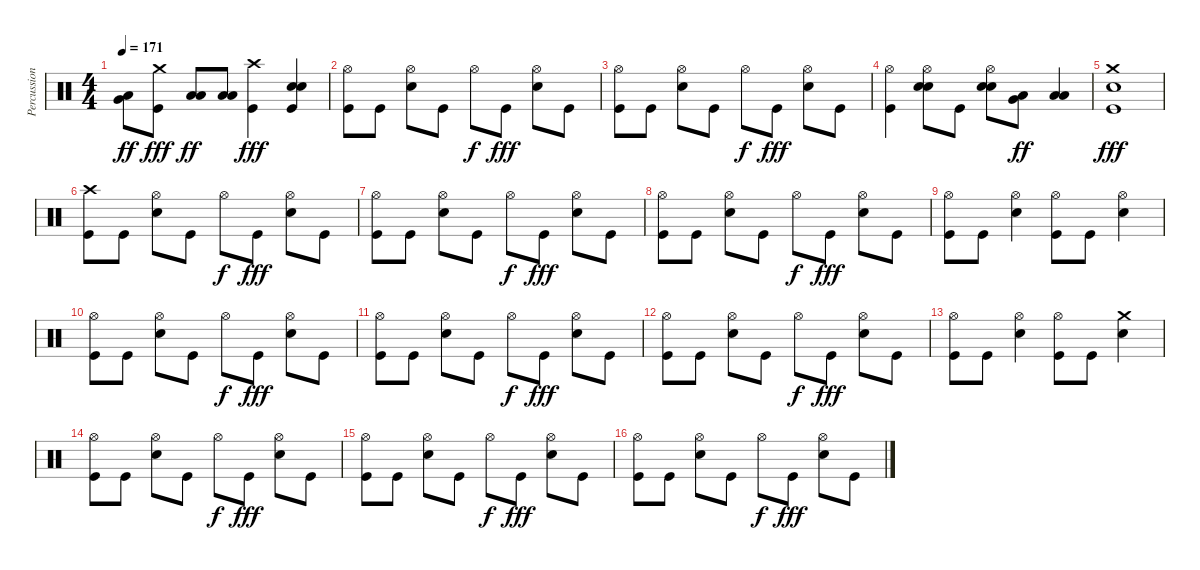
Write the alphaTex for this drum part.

\track ("Percussion" "Percussion") {instrument percussion}
\staff {score}
\articulation defaults
\ts (4 4)
\tempo 171
\clef neutral
\ks c
("Low Floor Tom (hit)" "Very Low Tom (hit)").8{dy ff} ("Crash medium (hit)" "Kick (hit)").8{dy fff} ("Low Floor Tom (hit)" "Low Floor Tom (hit)").8{dy ff} ("Low Floor Tom (hit)" "Low Floor Tom (hit)").8 ("Crash high (hit)" "Kick (hit)").4{dy fff} ("Electric Snare (hit)" "Snare (hit) 2" "Kick (hit)").4 |
("Hi-Hat (open)" "Kick (hit)").8 "Kick (hit)".8 ("Hi-Hat (open)" "Snare (hit) 2").8 "Kick (hit)".8 "Hi-Hat (open)".8{dy f} "Kick (hit)".8{dy fff} ("Hi-Hat (open)" "Snare (hit) 2").8 "Kick (hit)".8 |
("Hi-Hat (open)" "Kick (hit)").8 "Kick (hit)".8 ("Hi-Hat (open)" "Snare (hit) 2").8 "Kick (hit)".8 "Hi-Hat (open)".8{dy f} "Kick (hit)".8{dy fff} ("Hi-Hat (open)" "Snare (hit) 2").8 "Kick (hit)".8 |
("Hi-Hat (open)" "Kick (hit)").4 ("Hi-Hat (open)" "Electric Snare (hit)" "Snare (hit) 2").8 "Kick (hit)".8 ("Hi-Hat (open)" "Electric Snare (hit)" "Snare (hit) 2").8 ("Low Floor Tom (hit)" "Very Low Tom (hit)").8{dy ff} ("Low Floor Tom (hit)" "Low Floor Tom (hit)").4 |
("Crash medium (hit)" "Snare (hit) 2" "Kick (hit)").1{dy fff} |
("Crash high (hit)" "Kick (hit)").8 "Kick (hit)".8 ("Hi-Hat (open)" "Snare (hit) 2").8 "Kick (hit)".8 "Hi-Hat (open)".8{dy f} "Kick (hit)".8{dy fff} ("Hi-Hat (open)" "Snare (hit) 2").8 "Kick (hit)".8 |
("Hi-Hat (open)" "Kick (hit)").8 "Kick (hit)".8 ("Hi-Hat (open)" "Snare (hit) 2").8 "Kick (hit)".8 "Hi-Hat (open)".8{dy f} "Kick (hit)".8{dy fff} ("Hi-Hat (open)" "Snare (hit) 2").8 "Kick (hit)".8 |
("Hi-Hat (open)" "Kick (hit)").8 "Kick (hit)".8 ("Hi-Hat (open)" "Snare (hit) 2").8 "Kick (hit)".8 "Hi-Hat (open)".8{dy f} "Kick (hit)".8{dy fff} ("Hi-Hat (open)" "Snare (hit) 2").8 "Kick (hit)".8 |
("Hi-Hat (open)" "Kick (hit)").8 "Kick (hit)".8 ("Hi-Hat (open)" "Snare (hit) 2").4 ("Hi-Hat (open)" "Kick (hit)").8 "Kick (hit)".8 ("Hi-Hat (open)" "Snare (hit) 2").4 |
("Hi-Hat (open)" "Kick (hit)").8 "Kick (hit)".8 ("Hi-Hat (open)" "Snare (hit) 2").8 "Kick (hit)".8 "Hi-Hat (open)".8{dy f} "Kick (hit)".8{dy fff} ("Hi-Hat (open)" "Snare (hit) 2").8 "Kick (hit)".8 |
("Hi-Hat (open)" "Kick (hit)").8 "Kick (hit)".8 ("Hi-Hat (open)" "Snare (hit) 2").8 "Kick (hit)".8 "Hi-Hat (open)".8{dy f} "Kick (hit)".8{dy fff} ("Hi-Hat (open)" "Snare (hit) 2").8 "Kick (hit)".8 |
("Hi-Hat (open)" "Kick (hit)").8 "Kick (hit)".8 ("Hi-Hat (open)" "Snare (hit) 2").8 "Kick (hit)".8 "Hi-Hat (open)".8{dy f} "Kick (hit)".8{dy fff} ("Hi-Hat (open)" "Snare (hit) 2").8 "Kick (hit)".8 |
("Hi-Hat (open)" "Kick (hit)").8 "Kick (hit)".8 ("Hi-Hat (open)" "Snare (hit) 2").4 ("Hi-Hat (open)" "Kick (hit)").8 "Kick (hit)".8 ("Crash medium (hit)" "Snare (hit) 2").4 |
("Hi-Hat (open)" "Kick (hit)").8 "Kick (hit)".8 ("Hi-Hat (open)" "Snare (hit) 2").8 "Kick (hit)".8 "Hi-Hat (open)".8{dy f} "Kick (hit)".8{dy fff} ("Hi-Hat (open)" "Snare (hit) 2").8 "Kick (hit)".8 |
("Hi-Hat (open)" "Kick (hit)").8 "Kick (hit)".8 ("Hi-Hat (open)" "Snare (hit) 2").8 "Kick (hit)".8 "Hi-Hat (open)".8{dy f} "Kick (hit)".8{dy fff} ("Hi-Hat (open)" "Snare (hit) 2").8 "Kick (hit)".8 |
("Hi-Hat (open)" "Kick (hit)").8 "Kick (hit)".8 ("Hi-Hat (open)" "Snare (hit) 2").8 "Kick (hit)".8 "Hi-Hat (open)".8{dy f} "Kick (hit)".8{dy fff} ("Hi-Hat (open)" "Snare (hit) 2").8 "Kick (hit)".8
